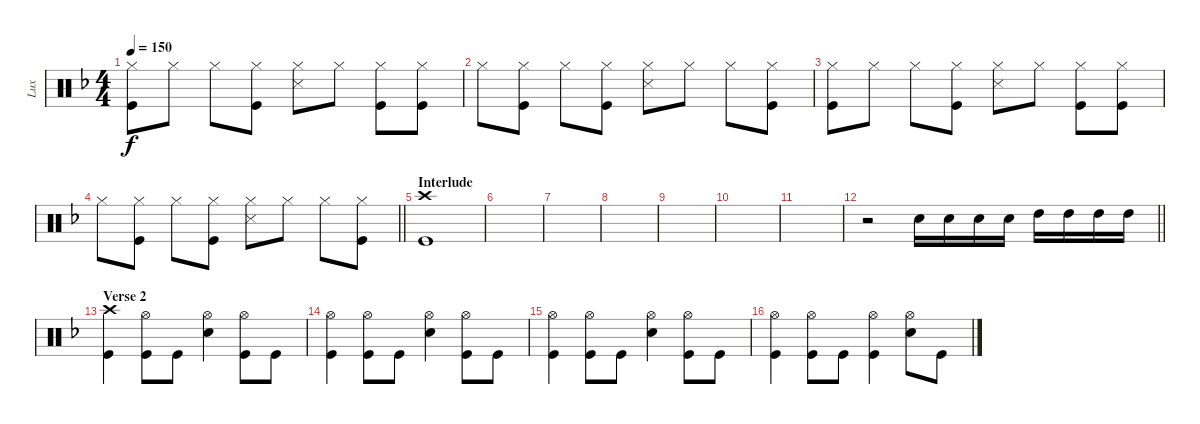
\track ("Lux" "Lux") {instrument percussion}
\staff {score}
\articulation defaults
\ts (4 4)
\tempo 150
\clef neutral
\ks dminor
("Hi-Hat (closed)" "Kick (hit)").8{dy f} "Hi-Hat (closed)".8 "Hi-Hat (closed)".8 ("Hi-Hat (closed)" "Kick (hit)").8 ("Hi-Hat (closed)" "Snare (side stick) 3").8 "Hi-Hat (closed)".8 ("Hi-Hat (closed)" "Kick (hit)").8 ("Hi-Hat (closed)" "Kick (hit)").8 |
"Hi-Hat (closed)".8 ("Hi-Hat (closed)" "Kick (hit)").8 "Hi-Hat (closed)".8 ("Hi-Hat (closed)" "Kick (hit)").8 ("Hi-Hat (closed)" "Snare (side stick) 3").8 "Hi-Hat (closed)".8 "Hi-Hat (closed)".8 ("Hi-Hat (closed)" "Kick (hit)").8 |
("Hi-Hat (closed)" "Kick (hit)").8 "Hi-Hat (closed)".8 "Hi-Hat (closed)".8 ("Hi-Hat (closed)" "Kick (hit)").8 ("Hi-Hat (closed)" "Snare (side stick) 3").8 "Hi-Hat (closed)".8 ("Hi-Hat (closed)" "Kick (hit)").8 ("Hi-Hat (closed)" "Kick (hit)").8 |
\barLineRight lightlight "Hi-Hat (closed)".8
("Hi-Hat (closed)" "Kick (hit)").8 "Hi-Hat (closed)".8 ("Hi-Hat (closed)" "Kick (hit)").8 ("Hi-Hat (closed)" "Snare (side stick) 3").8 "Hi-Hat (closed)".8 "Hi-Hat (closed)".8 ("Hi-Hat (closed)" "Kick (hit)").8 |
\section ("" "Interlude")
("Crash high (hit)" "Kick (hit)").1 |
|
|
|
|
|
|
\barLineRight lightlight
r.2 "Snare (hit) 2".16 "Snare (hit) 2".16 "Snare (hit) 2".16 "Snare (hit) 2".16 "High Tom (hit)".16 "High Tom (hit)".16 "High Tom (hit)".16 "High Tom (hit)".16 |
\section ("" "Verse 2")
("Crash high (hit)" "Kick (hit)").4 ("Hi-Hat (open)" "Kick (hit)").8 "Kick (hit)".8 ("Hi-Hat (open)" "Snare (hit) 2").4 ("Hi-Hat (open)" "Kick (hit)").8 "Kick (hit)".8 |
("Hi-Hat (open)" "Kick (hit)").4 ("Hi-Hat (open)" "Kick (hit)").8 "Kick (hit)".8 ("Hi-Hat (open)" "Snare (hit) 2").4 ("Hi-Hat (open)" "Kick (hit)").8 "Kick (hit)".8 |
("Hi-Hat (open)" "Kick (hit)").4 ("Hi-Hat (open)" "Kick (hit)").8 "Kick (hit)".8 ("Hi-Hat (open)" "Snare (hit) 2").4 ("Hi-Hat (open)" "Kick (hit)").8 "Kick (hit)".8 |
("Hi-Hat (open)" "Kick (hit)").4 ("Hi-Hat (open)" "Kick (hit)").8 "Kick (hit)".8 ("Hi-Hat (open)" "Kick (hit)").4 ("Hi-Hat (open)" "Snare (hit) 2").8 "Kick (hit)".8
